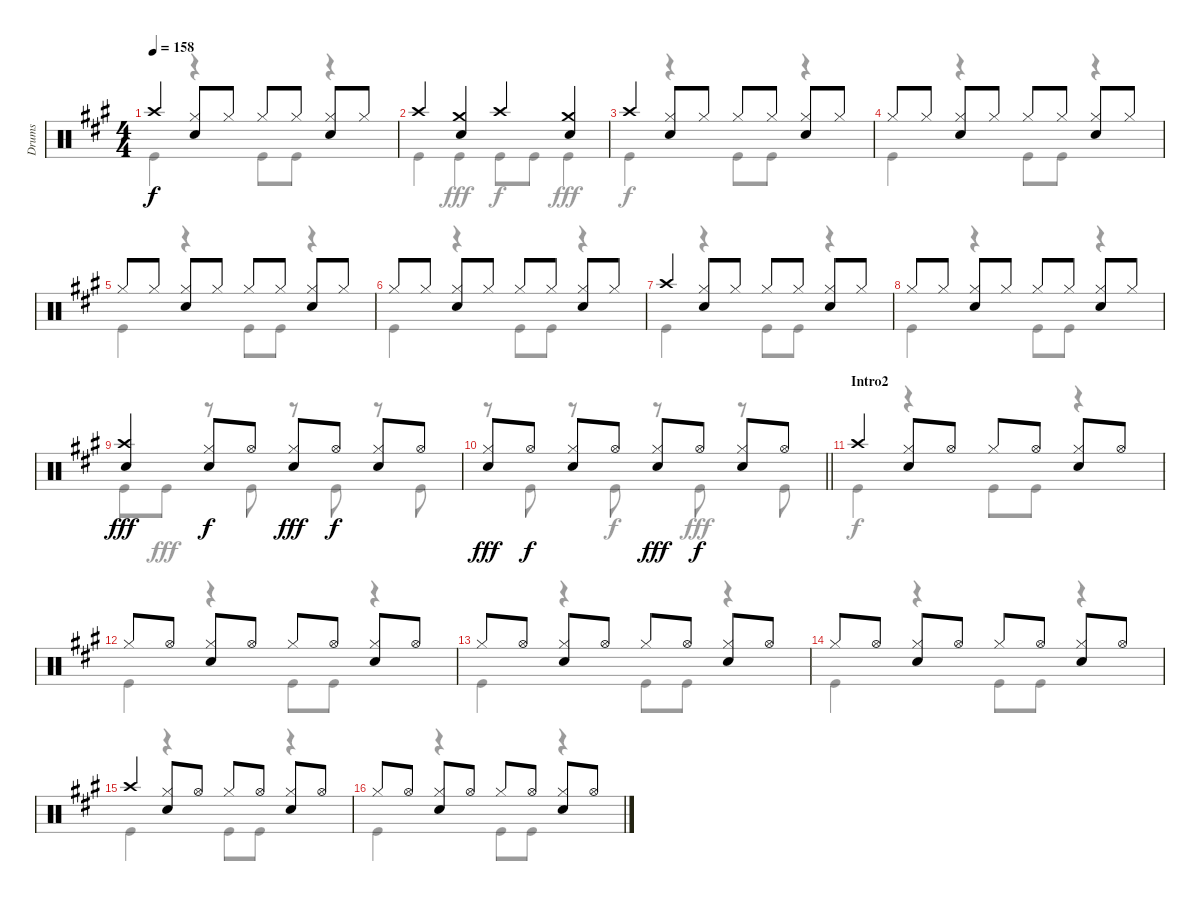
\track ("Drums" "Drums") {instrument percussion}
\staff {score}
\articulation defaults
\voice
\ts (4 4)
\tempo 158
\clef neutral
\ks a "Crash high (hit)".4{dy f}
("Hi-Hat (closed)" "Snare (hit) 2").8 "Hi-Hat (closed)".8 "Hi-Hat (closed)".8 "Hi-Hat (closed)".8 ("Hi-Hat (closed)" "Snare (hit) 2").8 "Hi-Hat (closed)".8 |
"Crash high (hit)".4 ("Crash medium (hit)" "Snare (hit) 2").4 "Crash high (hit)".4 ("Crash medium (hit)" "Snare (hit) 2").4 |
"Crash high (hit)".4 ("Hi-Hat (closed)" "Snare (hit) 2").8 "Hi-Hat (closed)".8 "Hi-Hat (closed)".8 "Hi-Hat (closed)".8 ("Hi-Hat (closed)" "Snare (hit) 2").8 "Hi-Hat (closed)".8 |
"Hi-Hat (closed)".8 "Hi-Hat (closed)".8 ("Hi-Hat (closed)" "Snare (hit) 2").8 "Hi-Hat (closed)".8 "Hi-Hat (closed)".8 "Hi-Hat (closed)".8 ("Hi-Hat (closed)" "Snare (hit) 2").8 "Hi-Hat (closed)".8 |
"Hi-Hat (closed)".8 "Hi-Hat (closed)".8 ("Hi-Hat (closed)" "Snare (hit) 2").8 "Hi-Hat (closed)".8 "Hi-Hat (closed)".8 "Hi-Hat (closed)".8 ("Hi-Hat (closed)" "Snare (hit) 2").8 "Hi-Hat (closed)".8 |
"Hi-Hat (closed)".8 "Hi-Hat (closed)".8 ("Hi-Hat (closed)" "Snare (hit) 2").8 "Hi-Hat (closed)".8 "Hi-Hat (closed)".8 "Hi-Hat (closed)".8 ("Hi-Hat (closed)" "Snare (hit) 2").8 "Hi-Hat (closed)".8 |
"Crash high (hit)".4 ("Hi-Hat (closed)" "Snare (hit) 2").8 "Hi-Hat (closed)".8 "Hi-Hat (closed)".8 "Hi-Hat (closed)".8 ("Hi-Hat (closed)" "Snare (hit) 2").8 "Hi-Hat (closed)".8 |
"Hi-Hat (closed)".8 "Hi-Hat (closed)".8 ("Hi-Hat (closed)" "Snare (hit) 2").8 "Hi-Hat (closed)".8 "Hi-Hat (closed)".8 "Hi-Hat (closed)".8 ("Hi-Hat (closed)" "Snare (hit) 2").8 "Hi-Hat (closed)".8 |
("Crash high (hit)" "Snare (hit) 2").4{dy fff} ("Hi-Hat (closed)" "Snare (hit) 2").8{dy f} "Hi-Hat (open)".8 ("Hi-Hat (closed)" "Snare (hit) 2").8{dy fff} "Hi-Hat (open)".8{dy f} ("Hi-Hat (closed)" "Snare (hit) 2").8 "Hi-Hat (open)".8 |
\barLineRight lightlight
("Hi-Hat (closed)" "Snare (hit) 2").8{dy fff} "Hi-Hat (open)".8{dy f} ("Hi-Hat (closed)" "Snare (hit) 2").8 "Hi-Hat (open)".8 ("Hi-Hat (closed)" "Snare (hit) 2").8{dy fff} "Hi-Hat (open)".8{dy f} ("Hi-Hat (closed)" "Snare (hit) 2").8 "Hi-Hat (open)".8 |
\section ("" "Intro2")
"Crash high (hit)".4 ("Hi-Hat (closed)" "Snare (hit) 2").8 "Hi-Hat (open)".8 "Hi-Hat (closed)".8 "Hi-Hat (open)".8 ("Hi-Hat (closed)" "Snare (hit) 2").8 "Hi-Hat (open)".8 |
"Hi-Hat (closed)".8 "Hi-Hat (open)".8 ("Hi-Hat (closed)" "Snare (hit) 2").8 "Hi-Hat (open)".8 "Hi-Hat (closed)".8 "Hi-Hat (open)".8 ("Hi-Hat (closed)" "Snare (hit) 2").8 "Hi-Hat (open)".8 |
"Hi-Hat (closed)".8 "Hi-Hat (open)".8 ("Hi-Hat (closed)" "Snare (hit) 2").8 "Hi-Hat (open)".8 "Hi-Hat (closed)".8 "Hi-Hat (open)".8 ("Hi-Hat (closed)" "Snare (hit) 2").8 "Hi-Hat (open)".8 |
"Hi-Hat (closed)".8 "Hi-Hat (open)".8 ("Hi-Hat (closed)" "Snare (hit) 2").8 "Hi-Hat (open)".8 "Hi-Hat (closed)".8 "Hi-Hat (open)".8 ("Hi-Hat (closed)" "Snare (hit) 2").8 "Hi-Hat (open)".8 |
"Crash high (hit)".4 ("Hi-Hat (closed)" "Snare (hit) 2").8 "Hi-Hat (open)".8 "Hi-Hat (closed)".8 "Hi-Hat (open)".8 ("Hi-Hat (closed)" "Snare (hit) 2").8 "Hi-Hat (open)".8 |
"Hi-Hat (closed)".8 "Hi-Hat (open)".8 ("Hi-Hat (closed)" "Snare (hit) 2").8 "Hi-Hat (open)".8 "Hi-Hat (closed)".8 "Hi-Hat (open)".8 ("Hi-Hat (closed)" "Snare (hit) 2").8 "Hi-Hat (open)".8
\voice
\clef neutral
\ottava regular
\simile none
\ks a "Kick (hit)".4{dy f}
r.4 "Kick (hit)".8 "Kick (hit)".8 r.4 |
"Kick (hit)".4 "Kick (hit)".4{dy fff} "Kick (hit)".8{dy f} "Kick (hit)".8 "Kick (hit)".4{dy fff} |
"Kick (hit)".4{dy f} r.4 "Kick (hit)".8 "Kick (hit)".8 r.4 |
"Kick (hit)".4 r.4 "Kick (hit)".8 "Kick (hit)".8 r.4 |
"Kick (hit)".4 r.4 "Kick (hit)".8 "Kick (hit)".8 r.4 |
"Kick (hit)".4 r.4 "Kick (hit)".8 "Kick (hit)".8 r.4 |
"Kick (hit)".4 r.4 "Kick (hit)".8 "Kick (hit)".8 r.4 |
"Kick (hit)".4 r.4 "Kick (hit)".8 "Kick (hit)".8 r.4 |
"Kick (hit)".8 "Kick (hit)".8{dy fff} r.8 "Kick (hit)".8 r.8 "Kick (hit)".8 r.8 "Kick (hit)".8 |
\barLineRight lightlight
r.8 "Kick (hit)".8 r.8 "Kick (hit)".8{dy f} r.8 "Kick (hit)".8{dy fff} r.8 "Kick (hit)".8 |
"Kick (hit)".4{dy f} r.4 "Kick (hit)".8 "Kick (hit)".8 r.4 |
"Kick (hit)".4 r.4 "Kick (hit)".8 "Kick (hit)".8 r.4 |
"Kick (hit)".4 r.4 "Kick (hit)".8 "Kick (hit)".8 r.4 |
"Kick (hit)".4 r.4 "Kick (hit)".8 "Kick (hit)".8 r.4 |
"Kick (hit)".4 r.4 "Kick (hit)".8 "Kick (hit)".8 r.4 |
"Kick (hit)".4 r.4 "Kick (hit)".8 "Kick (hit)".8 r.4
